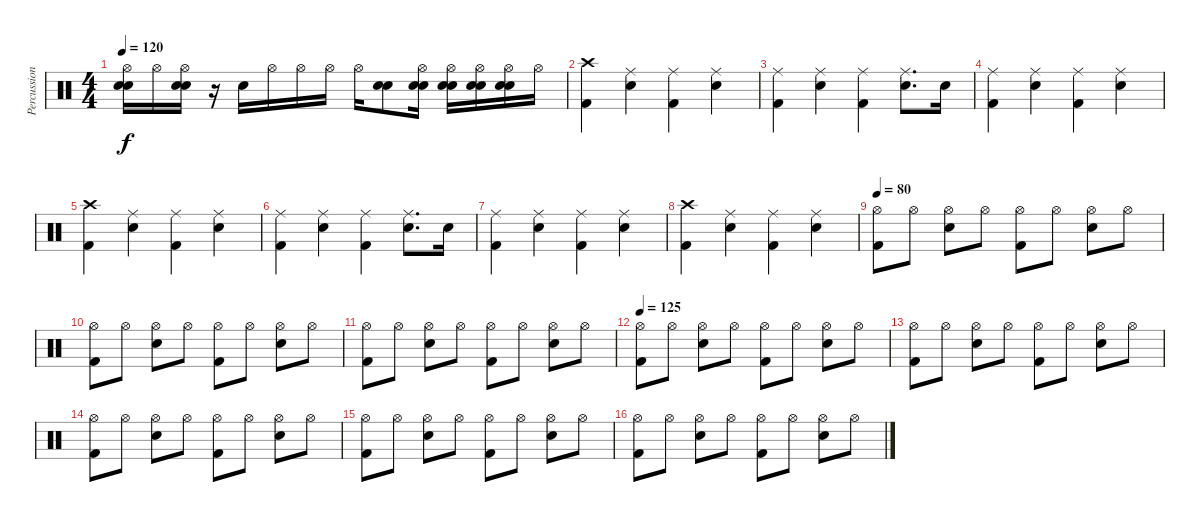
\track ("Percussion" "Percussion") {instrument percussion}
\staff {score}
\articulation defaults
\ts (4 4)
\tempo 120
\clef neutral
\ks c
("Hi-Hat (open)" "Snare (hit) 2" "Snare (hit) 2").16{dy f} "Hi-Hat (open)".16 ("Hi-Hat (open)" "Snare (hit) 2" "Snare (hit) 2").16 r.16 "Electric Snare (hit)".16 "Hi-Hat (open)".16 "Hi-Hat (open)".16 "Hi-Hat (open)".16 "Hi-Hat (open)".16 ("Snare (hit) 2" "Snare (hit) 2").8 ("Hi-Hat (open)" "Snare (hit) 2" "Snare (hit) 2").16 ("Hi-Hat (open)" "Electric Snare (hit)" "Electric Snare (hit)").16 ("Hi-Hat (open)" "Electric Snare (hit)" "Electric Snare (hit)").16 ("Hi-Hat (open)" "Snare (hit) 2" "Snare (hit) 2").16 "Hi-Hat (open)".16 |
("Crash high (hit)" "Kick (hit) 2").4 ("Ride (middle)" "Snare (hit) 2").4 ("Ride (middle)" "Kick (hit) 2").4 ("Ride (middle)" "Snare (hit) 2").4 |
("Ride (middle)" "Kick (hit) 2").4 ("Ride (middle)" "Snare (hit) 2").4 ("Ride (middle)" "Kick (hit) 2").4 ("Ride (middle)" "Snare (hit) 2").8{d} "Snare (hit) 2".16 |
("Ride (middle)" "Kick (hit) 2").4 ("Ride (middle)" "Snare (hit) 2").4 ("Ride (middle)" "Kick (hit) 2").4 ("Ride (middle)" "Snare (hit) 2").4 |
("Crash high (hit)" "Kick (hit) 2").4 ("Ride (middle)" "Snare (hit) 2").4 ("Ride (middle)" "Kick (hit) 2").4 ("Ride (middle)" "Snare (hit) 2").4 |
("Ride (middle)" "Kick (hit) 2").4 ("Ride (middle)" "Snare (hit) 2").4 ("Ride (middle)" "Kick (hit) 2").4 ("Ride (middle)" "Snare (hit) 2").8{d} "Snare (hit) 2".16 |
("Ride (middle)" "Kick (hit) 2").4 ("Ride (middle)" "Snare (hit) 2").4 ("Ride (middle)" "Kick (hit) 2").4 ("Ride (middle)" "Snare (hit) 2").4 |
("Crash high (hit)" "Kick (hit) 2").4 ("Ride (middle)" "Snare (hit) 2").4 ("Ride (middle)" "Kick (hit) 2").4 ("Ride (middle)" "Snare (hit) 2").4 |
\tempo 80
("Hi-Hat (open)" "Kick (hit) 2").8 "Hi-Hat (open)".8 ("Hi-Hat (open)" "Electric Snare (hit)").8 "Hi-Hat (open)".8 ("Hi-Hat (open)" "Kick (hit) 2").8 "Hi-Hat (open)".8 ("Hi-Hat (open)" "Electric Snare (hit)").8 "Hi-Hat (open)".8 |
("Hi-Hat (open)" "Kick (hit) 2").8 "Hi-Hat (open)".8 ("Hi-Hat (open)" "Electric Snare (hit)").8 "Hi-Hat (open)".8 ("Hi-Hat (open)" "Kick (hit) 2").8 "Hi-Hat (open)".8 ("Hi-Hat (open)" "Electric Snare (hit)").8 "Hi-Hat (open)".8 |
("Hi-Hat (open)" "Kick (hit) 2").8 "Hi-Hat (open)".8 ("Hi-Hat (open)" "Electric Snare (hit)").8 "Hi-Hat (open)".8 ("Hi-Hat (open)" "Kick (hit) 2").8 "Hi-Hat (open)".8 ("Hi-Hat (open)" "Electric Snare (hit)").8 "Hi-Hat (open)".8 |
\tempo 125
("Hi-Hat (open)" "Kick (hit) 2").8 "Hi-Hat (open)".8 ("Hi-Hat (open)" "Electric Snare (hit)").8 "Hi-Hat (open)".8 ("Hi-Hat (open)" "Kick (hit) 2").8 "Hi-Hat (open)".8 ("Hi-Hat (open)" "Electric Snare (hit)").8 "Hi-Hat (open)".8 |
("Hi-Hat (open)" "Kick (hit) 2").8 "Hi-Hat (open)".8 ("Hi-Hat (open)" "Electric Snare (hit)").8 "Hi-Hat (open)".8 ("Hi-Hat (open)" "Kick (hit) 2").8 "Hi-Hat (open)".8 ("Hi-Hat (open)" "Electric Snare (hit)").8 "Hi-Hat (open)".8 |
("Hi-Hat (open)" "Kick (hit) 2").8 "Hi-Hat (open)".8 ("Hi-Hat (open)" "Electric Snare (hit)").8 "Hi-Hat (open)".8 ("Hi-Hat (open)" "Kick (hit) 2").8 "Hi-Hat (open)".8 ("Hi-Hat (open)" "Electric Snare (hit)").8 "Hi-Hat (open)".8 |
("Hi-Hat (open)" "Kick (hit) 2").8 "Hi-Hat (open)".8 ("Hi-Hat (open)" "Electric Snare (hit)").8 "Hi-Hat (open)".8 ("Hi-Hat (open)" "Kick (hit) 2").8 "Hi-Hat (open)".8 ("Hi-Hat (open)" "Electric Snare (hit)").8 "Hi-Hat (open)".8 |
("Hi-Hat (open)" "Kick (hit) 2").8 "Hi-Hat (open)".8 ("Hi-Hat (open)" "Electric Snare (hit)").8 "Hi-Hat (open)".8 ("Hi-Hat (open)" "Kick (hit) 2").8 "Hi-Hat (open)".8 ("Hi-Hat (open)" "Electric Snare (hit)").8 "Hi-Hat (open)".8
